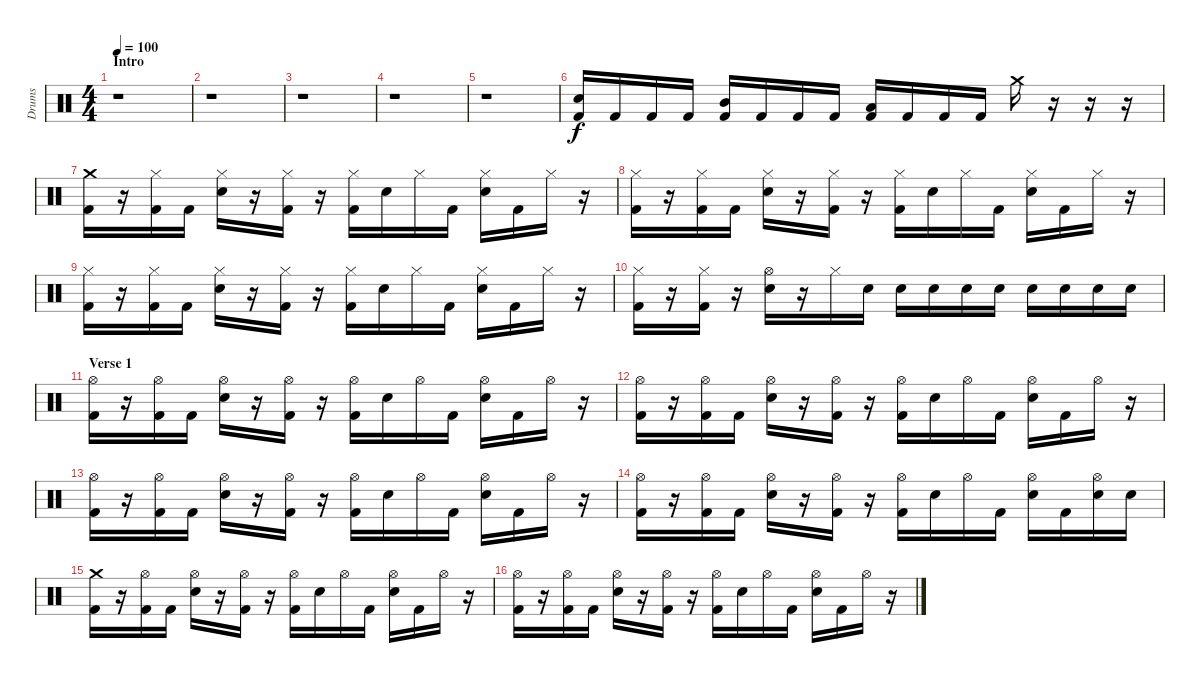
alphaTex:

\track ("Drums" "Drums") {instrument percussion}
\staff {score}
\articulation defaults
\ts (4 4)
\section ("" "Intro")
\tempo 100
\clef neutral
\ks c
r.1{dy f} |
r.1 |
r.1 |
r.1 |
r.1 |
("Snare (hit) 2" "Kick (hit) 2").16 "Kick (hit) 2".16 "Kick (hit) 2".16 "Kick (hit) 2".16 ("Mid Tom (hit)" "Kick (hit) 2").16 "Kick (hit) 2".16 "Kick (hit) 2".16 "Kick (hit) 2".16 ("Low Tom (hit)" "Kick (hit) 2").16 "Kick (hit) 2".16 "Kick (hit) 2".16 "Kick (hit) 2".16 "Crash medium (hit)".16 r.16 r.16 r.16 |
("Crash medium (hit)" "Kick (hit) 2").16 r.16 ("Hi-Hat (closed)" "Kick (hit) 2").16 "Kick (hit) 2".16 ("Hi-Hat (closed)" "Snare (hit) 2").16 r.16 ("Hi-Hat (closed)" "Kick (hit) 2").16 r.16 ("Hi-Hat (closed)" "Kick (hit) 2").16 "Snare (hit) 2".16 "Hi-Hat (closed)".16 "Kick (hit) 2".16 ("Hi-Hat (closed)" "Snare (hit) 2").16 "Kick (hit) 2".16 "Hi-Hat (closed)".16 r.16 |
("Hi-Hat (closed)" "Kick (hit) 2").16 r.16 ("Hi-Hat (closed)" "Kick (hit) 2").16 "Kick (hit) 2".16 ("Hi-Hat (closed)" "Snare (hit) 2").16 r.16 ("Hi-Hat (closed)" "Kick (hit) 2").16 r.16 ("Hi-Hat (closed)" "Kick (hit) 2").16 "Snare (hit) 2".16 "Hi-Hat (closed)".16 "Kick (hit) 2".16 ("Hi-Hat (closed)" "Snare (hit) 2").16 "Kick (hit) 2".16 "Hi-Hat (closed)".16 r.16 |
("Hi-Hat (closed)" "Kick (hit) 2").16 r.16 ("Hi-Hat (closed)" "Kick (hit) 2").16 "Kick (hit) 2".16 ("Hi-Hat (closed)" "Snare (hit) 2").16 r.16 ("Hi-Hat (closed)" "Kick (hit) 2").16 r.16 ("Hi-Hat (closed)" "Kick (hit) 2").16 "Snare (hit) 2".16 "Hi-Hat (closed)".16 "Kick (hit) 2".16 ("Hi-Hat (closed)" "Snare (hit) 2").16 "Kick (hit) 2".16 "Hi-Hat (closed)".16 r.16 |
("Hi-Hat (closed)" "Kick (hit) 2").16 r.16 ("Hi-Hat (closed)" "Kick (hit) 2").16 r.16 ("Hi-Hat (open)" "Snare (hit) 2").16 r.16 "Hi-Hat (closed)".16 "Snare (hit) 2".16 "Snare (hit) 2".16 "Snare (hit) 2".16 "Snare (hit) 2".16 "Snare (hit) 2".16 "Snare (hit) 2".16 "Snare (hit) 2".16 "Snare (hit) 2".16 "Snare (hit) 2".16 |
\section ("" "Verse 1")
("Hi-Hat (open)" "Kick (hit) 2").16 r.16 ("Hi-Hat (open)" "Kick (hit) 2").16 "Kick (hit) 2".16 ("Hi-Hat (open)" "Snare (hit) 2").16 r.16 ("Hi-Hat (open)" "Kick (hit) 2").16 r.16 ("Hi-Hat (open)" "Kick (hit) 2").16 "Snare (hit) 2".16 "Hi-Hat (open)".16 "Kick (hit) 2".16 ("Hi-Hat (open)" "Snare (hit) 2").16 "Kick (hit) 2".16 "Hi-Hat (open)".16 r.16 |
("Hi-Hat (open)" "Kick (hit) 2").16 r.16 ("Hi-Hat (open)" "Kick (hit) 2").16 "Kick (hit) 2".16 ("Hi-Hat (open)" "Snare (hit) 2").16 r.16 ("Hi-Hat (open)" "Kick (hit) 2").16 r.16 ("Hi-Hat (open)" "Kick (hit) 2").16 "Snare (hit) 2".16 "Hi-Hat (open)".16 "Kick (hit) 2".16 ("Hi-Hat (open)" "Snare (hit) 2").16 "Kick (hit) 2".16 "Hi-Hat (open)".16 r.16 |
("Hi-Hat (open)" "Kick (hit) 2").16 r.16 ("Hi-Hat (open)" "Kick (hit) 2").16 "Kick (hit) 2".16 ("Hi-Hat (open)" "Snare (hit) 2").16 r.16 ("Hi-Hat (open)" "Kick (hit) 2").16 r.16 ("Hi-Hat (open)" "Kick (hit) 2").16 "Snare (hit) 2".16 "Hi-Hat (open)".16 "Kick (hit) 2".16 ("Hi-Hat (open)" "Snare (hit) 2").16 "Kick (hit) 2".16 "Hi-Hat (open)".16 r.16 |
("Hi-Hat (open)" "Kick (hit) 2").16 r.16 ("Hi-Hat (open)" "Kick (hit) 2").16 "Kick (hit) 2".16 ("Hi-Hat (open)" "Snare (hit) 2").16 r.16 ("Hi-Hat (open)" "Kick (hit) 2").16 r.16 ("Hi-Hat (open)" "Kick (hit) 2").16 "Snare (hit) 2".16 "Hi-Hat (open)".16 "Kick (hit) 2".16 ("Hi-Hat (open)" "Snare (hit) 2").16 "Kick (hit) 2".16 ("Hi-Hat (open)" "Snare (hit) 2").16 "Snare (hit) 2".16 |
("Crash medium (hit)" "Kick (hit) 2").16 r.16 ("Hi-Hat (open)" "Kick (hit) 2").16 "Kick (hit) 2".16 ("Hi-Hat (open)" "Snare (hit) 2").16 r.16 ("Hi-Hat (open)" "Kick (hit) 2").16 r.16 ("Hi-Hat (open)" "Kick (hit) 2").16 "Snare (hit) 2".16 "Hi-Hat (open)".16 "Kick (hit) 2".16 ("Hi-Hat (open)" "Snare (hit) 2").16 "Kick (hit) 2".16 "Hi-Hat (open)".16 r.16 |
("Hi-Hat (open)" "Kick (hit) 2").16 r.16 ("Hi-Hat (open)" "Kick (hit) 2").16 "Kick (hit) 2".16 ("Hi-Hat (open)" "Snare (hit) 2").16 r.16 ("Hi-Hat (open)" "Kick (hit) 2").16 r.16 ("Hi-Hat (open)" "Kick (hit) 2").16 "Snare (hit) 2".16 "Hi-Hat (open)".16 "Kick (hit) 2".16 ("Hi-Hat (open)" "Snare (hit) 2").16 "Kick (hit) 2".16 "Hi-Hat (open)".16 r.16
